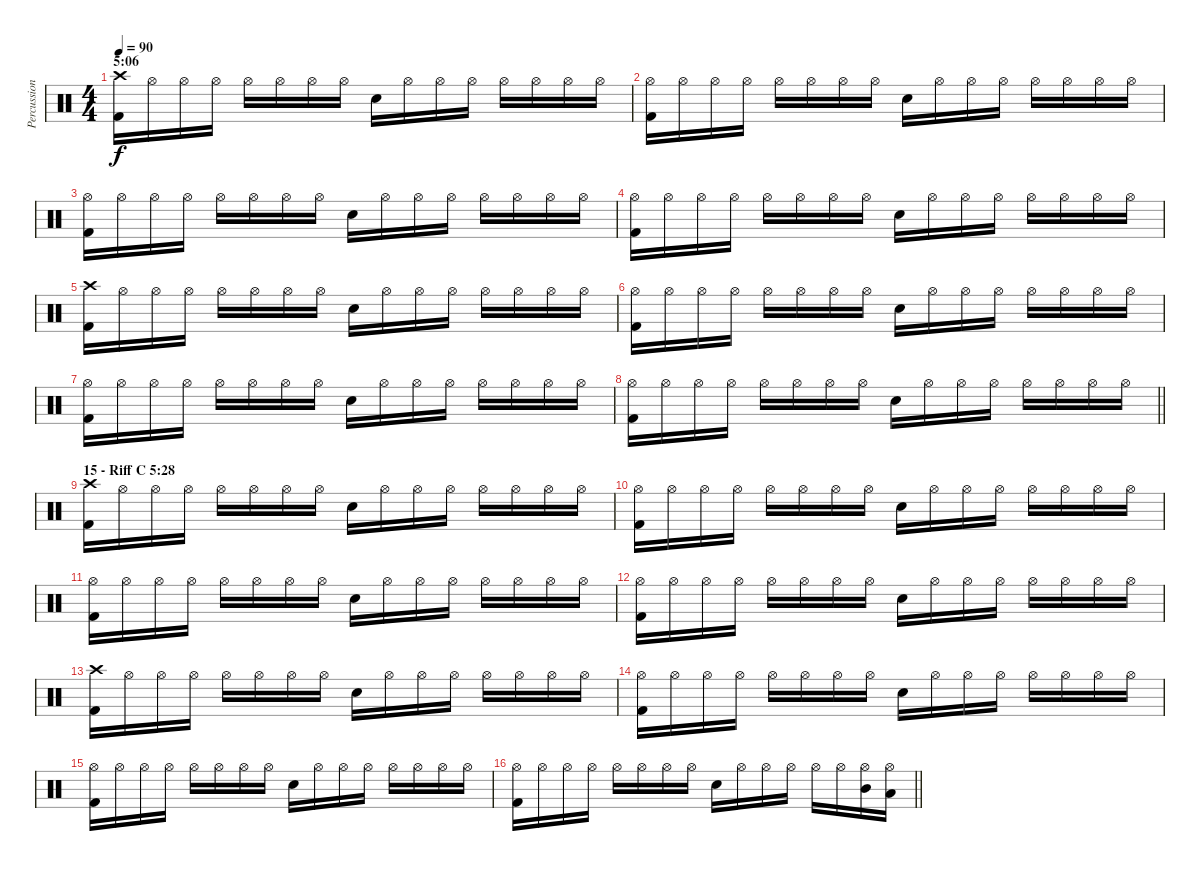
\track ("Percussion" "Percussion") {instrument percussion}
\staff {score}
\articulation defaults
\ts (4 4)
\section ("" "5:06")
\tempo 90
\clef neutral
\ks c
("Crash high (hit)" "Kick (hit) 2").16{dy f} "Hi-Hat (open)".16 "Hi-Hat (open)".16 "Hi-Hat (open)".16 "Hi-Hat (open)".16 "Hi-Hat (open)".16 "Hi-Hat (open)".16 "Hi-Hat (open)".16 "Snare (hit) 2".16 "Hi-Hat (open)".16 "Hi-Hat (open)".16 "Hi-Hat (open)".16 "Hi-Hat (open)".16 "Hi-Hat (open)".16 "Hi-Hat (open)".16 "Hi-Hat (open)".16 |
("Hi-Hat (open)" "Kick (hit) 2").16 "Hi-Hat (open)".16 "Hi-Hat (open)".16 "Hi-Hat (open)".16 "Hi-Hat (open)".16 "Hi-Hat (open)".16 "Hi-Hat (open)".16 "Hi-Hat (open)".16 "Snare (hit) 2".16 "Hi-Hat (open)".16 "Hi-Hat (open)".16 "Hi-Hat (open)".16 "Hi-Hat (open)".16 "Hi-Hat (open)".16 "Hi-Hat (open)".16 "Hi-Hat (open)".16 |
("Hi-Hat (open)" "Kick (hit) 2").16 "Hi-Hat (open)".16 "Hi-Hat (open)".16 "Hi-Hat (open)".16 "Hi-Hat (open)".16 "Hi-Hat (open)".16 "Hi-Hat (open)".16 "Hi-Hat (open)".16 "Snare (hit) 2".16 "Hi-Hat (open)".16 "Hi-Hat (open)".16 "Hi-Hat (open)".16 "Hi-Hat (open)".16 "Hi-Hat (open)".16 "Hi-Hat (open)".16 "Hi-Hat (open)".16 |
("Hi-Hat (open)" "Kick (hit) 2").16 "Hi-Hat (open)".16 "Hi-Hat (open)".16 "Hi-Hat (open)".16 "Hi-Hat (open)".16 "Hi-Hat (open)".16 "Hi-Hat (open)".16 "Hi-Hat (open)".16 "Snare (hit) 2".16 "Hi-Hat (open)".16 "Hi-Hat (open)".16 "Hi-Hat (open)".16 "Hi-Hat (open)".16 "Hi-Hat (open)".16 "Hi-Hat (open)".16 "Hi-Hat (open)".16 |
("Crash high (hit)" "Kick (hit) 2").16 "Hi-Hat (open)".16 "Hi-Hat (open)".16 "Hi-Hat (open)".16 "Hi-Hat (open)".16 "Hi-Hat (open)".16 "Hi-Hat (open)".16 "Hi-Hat (open)".16 "Snare (hit) 2".16 "Hi-Hat (open)".16 "Hi-Hat (open)".16 "Hi-Hat (open)".16 "Hi-Hat (open)".16 "Hi-Hat (open)".16 "Hi-Hat (open)".16 "Hi-Hat (open)".16 |
("Hi-Hat (open)" "Kick (hit) 2").16 "Hi-Hat (open)".16 "Hi-Hat (open)".16 "Hi-Hat (open)".16 "Hi-Hat (open)".16 "Hi-Hat (open)".16 "Hi-Hat (open)".16 "Hi-Hat (open)".16 "Snare (hit) 2".16 "Hi-Hat (open)".16 "Hi-Hat (open)".16 "Hi-Hat (open)".16 "Hi-Hat (open)".16 "Hi-Hat (open)".16 "Hi-Hat (open)".16 "Hi-Hat (open)".16 |
("Hi-Hat (open)" "Kick (hit) 2").16 "Hi-Hat (open)".16 "Hi-Hat (open)".16 "Hi-Hat (open)".16 "Hi-Hat (open)".16 "Hi-Hat (open)".16 "Hi-Hat (open)".16 "Hi-Hat (open)".16 "Snare (hit) 2".16 "Hi-Hat (open)".16 "Hi-Hat (open)".16 "Hi-Hat (open)".16 "Hi-Hat (open)".16 "Hi-Hat (open)".16 "Hi-Hat (open)".16 "Hi-Hat (open)".16 |
\barLineRight lightlight
("Hi-Hat (open)" "Kick (hit) 2").16 "Hi-Hat (open)".16 "Hi-Hat (open)".16 "Hi-Hat (open)".16 "Hi-Hat (open)".16 "Hi-Hat (open)".16 "Hi-Hat (open)".16 "Hi-Hat (open)".16 "Snare (hit) 2".16 "Hi-Hat (open)".16 "Hi-Hat (open)".16 "Hi-Hat (open)".16 "Hi-Hat (open)".16 "Hi-Hat (open)".16 "Hi-Hat (open)".16 "Hi-Hat (open)".16 |
\section ("" "15 - Riff C 5:28")
("Crash high (hit)" "Kick (hit) 2").16 "Hi-Hat (open)".16 "Hi-Hat (open)".16 "Hi-Hat (open)".16 "Hi-Hat (open)".16 "Hi-Hat (open)".16 "Hi-Hat (open)".16 "Hi-Hat (open)".16 "Snare (hit) 2".16 "Hi-Hat (open)".16 "Hi-Hat (open)".16 "Hi-Hat (open)".16 "Hi-Hat (open)".16 "Hi-Hat (open)".16 "Hi-Hat (open)".16 "Hi-Hat (open)".16 |
("Hi-Hat (open)" "Kick (hit) 2").16 "Hi-Hat (open)".16 "Hi-Hat (open)".16 "Hi-Hat (open)".16 "Hi-Hat (open)".16 "Hi-Hat (open)".16 "Hi-Hat (open)".16 "Hi-Hat (open)".16 "Snare (hit) 2".16 "Hi-Hat (open)".16 "Hi-Hat (open)".16 "Hi-Hat (open)".16 "Hi-Hat (open)".16 "Hi-Hat (open)".16 "Hi-Hat (open)".16 "Hi-Hat (open)".16 |
("Hi-Hat (open)" "Kick (hit) 2").16 "Hi-Hat (open)".16 "Hi-Hat (open)".16 "Hi-Hat (open)".16 "Hi-Hat (open)".16 "Hi-Hat (open)".16 "Hi-Hat (open)".16 "Hi-Hat (open)".16 "Snare (hit) 2".16 "Hi-Hat (open)".16 "Hi-Hat (open)".16 "Hi-Hat (open)".16 "Hi-Hat (open)".16 "Hi-Hat (open)".16 "Hi-Hat (open)".16 "Hi-Hat (open)".16 |
("Hi-Hat (open)" "Kick (hit) 2").16 "Hi-Hat (open)".16 "Hi-Hat (open)".16 "Hi-Hat (open)".16 "Hi-Hat (open)".16 "Hi-Hat (open)".16 "Hi-Hat (open)".16 "Hi-Hat (open)".16 "Snare (hit) 2".16 "Hi-Hat (open)".16 "Hi-Hat (open)".16 "Hi-Hat (open)".16 "Hi-Hat (open)".16 "Hi-Hat (open)".16 "Hi-Hat (open)".16 "Hi-Hat (open)".16 |
("Crash high (hit)" "Kick (hit) 2").16 "Hi-Hat (open)".16 "Hi-Hat (open)".16 "Hi-Hat (open)".16 "Hi-Hat (open)".16 "Hi-Hat (open)".16 "Hi-Hat (open)".16 "Hi-Hat (open)".16 "Snare (hit) 2".16 "Hi-Hat (open)".16 "Hi-Hat (open)".16 "Hi-Hat (open)".16 "Hi-Hat (open)".16 "Hi-Hat (open)".16 "Hi-Hat (open)".16 "Hi-Hat (open)".16 |
("Hi-Hat (open)" "Kick (hit) 2").16 "Hi-Hat (open)".16 "Hi-Hat (open)".16 "Hi-Hat (open)".16 "Hi-Hat (open)".16 "Hi-Hat (open)".16 "Hi-Hat (open)".16 "Hi-Hat (open)".16 "Snare (hit) 2".16 "Hi-Hat (open)".16 "Hi-Hat (open)".16 "Hi-Hat (open)".16 "Hi-Hat (open)".16 "Hi-Hat (open)".16 "Hi-Hat (open)".16 "Hi-Hat (open)".16 |
("Hi-Hat (open)" "Kick (hit) 2").16 "Hi-Hat (open)".16 "Hi-Hat (open)".16 "Hi-Hat (open)".16 "Hi-Hat (open)".16 "Hi-Hat (open)".16 "Hi-Hat (open)".16 "Hi-Hat (open)".16 "Snare (hit) 2".16 "Hi-Hat (open)".16 "Hi-Hat (open)".16 "Hi-Hat (open)".16 "Hi-Hat (open)".16 "Hi-Hat (open)".16 "Hi-Hat (open)".16 "Hi-Hat (open)".16 |
\barLineRight lightlight
("Hi-Hat (open)" "Kick (hit) 2").16 "Hi-Hat (open)".16 "Hi-Hat (open)".16 "Hi-Hat (open)".16 "Hi-Hat (open)".16 "Hi-Hat (open)".16 "Hi-Hat (open)".16 "Hi-Hat (open)".16 "Snare (hit) 2".16 "Hi-Hat (open)".16 "Hi-Hat (open)".16 "Hi-Hat (open)".16 "Hi-Hat (open)".16 "Hi-Hat (open)".16 ("Hi-Hat (open)" "Mid Tom (hit)").16 ("Hi-Hat (open)" "Low Tom (hit)").16
